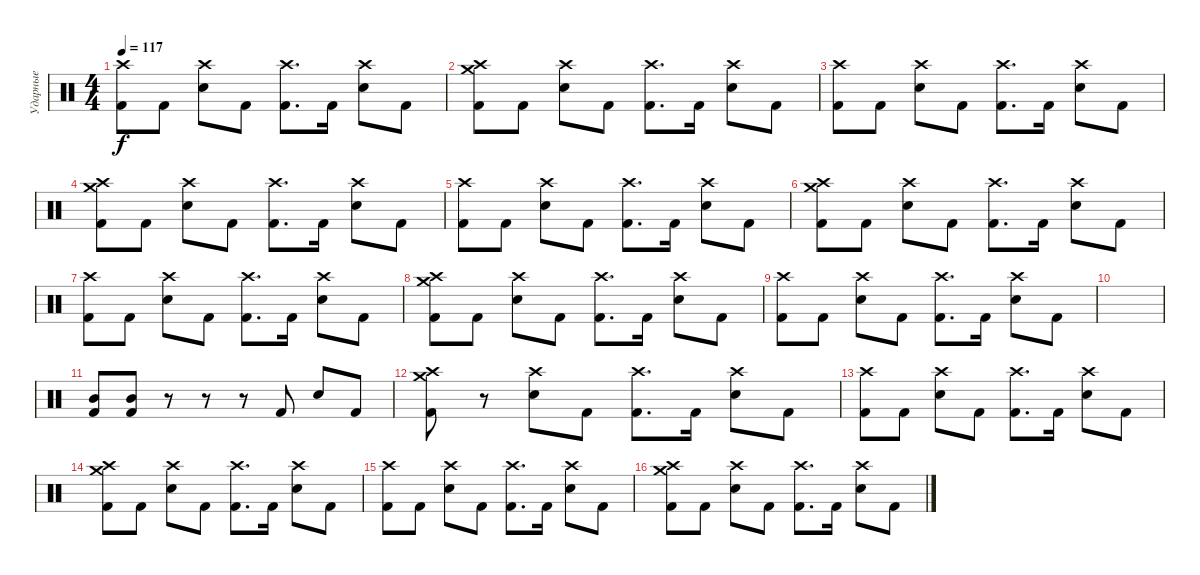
\track ("Ударные" "Ударные") {instrument percussion}
\staff {score}
\articulation defaults
\ts (4 4)
\section ("" "")
\tempo 117
\clef neutral
\ks c
("Crash high (hit)" "Kick (hit) 2").8{dy f} "Kick (hit) 2".8 ("Crash high (hit)" "Electric Snare (hit)").8 "Kick (hit) 2".8 ("Crash high (hit)" "Kick (hit) 2").8{d} "Kick (hit) 2".16 ("Crash high (hit)" "Electric Snare (hit)").8 "Kick (hit) 2".8 |
("Crash medium (hit)" "Crash high (hit)" "Kick (hit) 2").8 "Kick (hit) 2".8 ("Crash high (hit)" "Electric Snare (hit)").8 "Kick (hit) 2".8 ("Crash high (hit)" "Kick (hit) 2").8{d} "Kick (hit) 2".16 ("Crash high (hit)" "Electric Snare (hit)").8 "Kick (hit) 2".8 |
("Crash high (hit)" "Kick (hit) 2").8 "Kick (hit) 2".8 ("Crash high (hit)" "Electric Snare (hit)").8 "Kick (hit) 2".8 ("Crash high (hit)" "Kick (hit) 2").8{d} "Kick (hit) 2".16 ("Crash high (hit)" "Electric Snare (hit)").8 "Kick (hit) 2".8 |
("Crash medium (hit)" "Crash high (hit)" "Kick (hit) 2").8 "Kick (hit) 2".8 ("Crash high (hit)" "Electric Snare (hit)").8 "Kick (hit) 2".8 ("Crash high (hit)" "Kick (hit) 2").8{d} "Kick (hit) 2".16 ("Crash high (hit)" "Electric Snare (hit)").8 "Kick (hit) 2".8 |
("Crash high (hit)" "Kick (hit) 2").8 "Kick (hit) 2".8 ("Crash high (hit)" "Electric Snare (hit)").8 "Kick (hit) 2".8 ("Crash high (hit)" "Kick (hit) 2").8{d} "Kick (hit) 2".16 ("Crash high (hit)" "Electric Snare (hit)").8 "Kick (hit) 2".8 |
("Crash medium (hit)" "Crash high (hit)" "Kick (hit) 2").8 "Kick (hit) 2".8 ("Crash high (hit)" "Electric Snare (hit)").8 "Kick (hit) 2".8 ("Crash high (hit)" "Kick (hit) 2").8{d} "Kick (hit) 2".16 ("Crash high (hit)" "Electric Snare (hit)").8 "Kick (hit) 2".8 |
("Crash high (hit)" "Kick (hit) 2").8 "Kick (hit) 2".8 ("Crash high (hit)" "Electric Snare (hit)").8 "Kick (hit) 2".8 ("Crash high (hit)" "Kick (hit) 2").8{d} "Kick (hit) 2".16 ("Crash high (hit)" "Electric Snare (hit)").8 "Kick (hit) 2".8 |
("Crash medium (hit)" "Crash high (hit)" "Kick (hit) 2").8 "Kick (hit) 2".8 ("Crash high (hit)" "Electric Snare (hit)").8 "Kick (hit) 2".8 ("Crash high (hit)" "Kick (hit) 2").8{d} "Kick (hit) 2".16 ("Crash high (hit)" "Electric Snare (hit)").8 "Kick (hit) 2".8 |
("Crash high (hit)" "Kick (hit) 2").8 "Kick (hit) 2".8 ("Crash high (hit)" "Electric Snare (hit)").8 "Kick (hit) 2".8 ("Crash high (hit)" "Kick (hit) 2").8{d} "Kick (hit) 2".16 ("Crash high (hit)" "Electric Snare (hit)").8 "Kick (hit) 2".8 |
|
("Kick (hit) 2" "Mid Tom (hit)").8 ("Kick (hit) 2" "Mid Tom (hit)").8 r.8 r.8 r.8 "Kick (hit) 2".8 "Electric Snare (hit)".8 "Kick (hit) 2".8 |
("Crash medium (hit)" "Crash high (hit)" "Kick (hit) 2").8 r.8 ("Crash high (hit)" "Electric Snare (hit)").8 "Kick (hit) 2".8 ("Crash high (hit)" "Kick (hit) 2").8{d} "Kick (hit) 2".16 ("Crash high (hit)" "Electric Snare (hit)").8 "Kick (hit) 2".8 |
("Crash high (hit)" "Kick (hit) 2").8 "Kick (hit) 2".8 ("Crash high (hit)" "Electric Snare (hit)").8 "Kick (hit) 2".8 ("Crash high (hit)" "Kick (hit) 2").8{d} "Kick (hit) 2".16 ("Crash high (hit)" "Electric Snare (hit)").8 "Kick (hit) 2".8 |
("Crash medium (hit)" "Crash high (hit)" "Kick (hit) 2").8 "Kick (hit) 2".8 ("Crash high (hit)" "Electric Snare (hit)").8 "Kick (hit) 2".8 ("Crash high (hit)" "Kick (hit) 2").8{d} "Kick (hit) 2".16 ("Crash high (hit)" "Electric Snare (hit)").8 "Kick (hit) 2".8 |
("Crash high (hit)" "Kick (hit) 2").8 "Kick (hit) 2".8 ("Crash high (hit)" "Electric Snare (hit)").8 "Kick (hit) 2".8 ("Crash high (hit)" "Kick (hit) 2").8{d} "Kick (hit) 2".16 ("Crash high (hit)" "Electric Snare (hit)").8 "Kick (hit) 2".8 |
("Crash medium (hit)" "Crash high (hit)" "Kick (hit) 2").8 "Kick (hit) 2".8 ("Crash high (hit)" "Electric Snare (hit)").8 "Kick (hit) 2".8 ("Crash high (hit)" "Kick (hit) 2").8{d} "Kick (hit) 2".16 ("Crash high (hit)" "Electric Snare (hit)").8 "Kick (hit) 2".8
